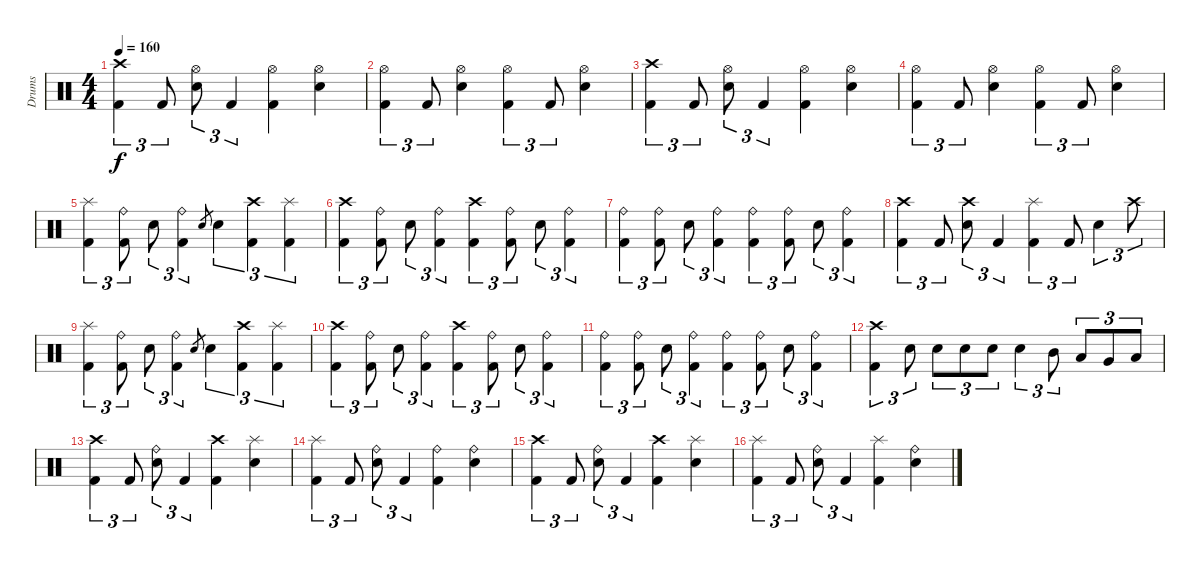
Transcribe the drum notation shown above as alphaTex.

\track ("Drums" "Drums") {instrument percussion}
\staff {score}
\articulation defaults
\ts (4 4)
\tempo 160
\clef neutral
\ks c
("Crash high (hit)" "Kick (hit) 2").4{tu (3 2) dy f} "Kick (hit) 2".8{tu (3 2)} ("Hi-Hat (open)" "Snare (hit) 2").8{tu (3 2)} "Kick (hit) 2".4{tu (3 2)} ("Hi-Hat (open)" "Kick (hit) 2").4 ("Hi-Hat (open)" "Snare (hit) 2").4 |
("Hi-Hat (open)" "Kick (hit) 2").4{tu (3 2)} "Kick (hit) 2".8{tu (3 2)} ("Hi-Hat (open)" "Snare (hit) 2").4 ("Hi-Hat (open)" "Kick (hit) 2").4{tu (3 2)} "Kick (hit) 2".8{tu (3 2)} ("Hi-Hat (open)" "Snare (hit) 2").4 |
("Crash high (hit)" "Kick (hit) 2").4{tu (3 2)} "Kick (hit) 2".8{tu (3 2)} ("Hi-Hat (open)" "Snare (hit) 2").8{tu (3 2)} "Kick (hit) 2".4{tu (3 2)} ("Hi-Hat (open)" "Kick (hit) 2").4 ("Hi-Hat (open)" "Snare (hit) 2").4 |
("Hi-Hat (open)" "Kick (hit) 2").4{tu (3 2)} "Kick (hit) 2".8{tu (3 2)} ("Hi-Hat (open)" "Snare (hit) 2").4 ("Hi-Hat (open)" "Kick (hit) 2").4{tu (3 2)} "Kick (hit) 2".8{tu (3 2)} ("Hi-Hat (open)" "Snare (hit) 2").4 |
("Splash (hit)" "Kick (hit) 2").4{tu (3 2)} ("Ride (bell)" "Kick (hit) 2").8{tu (3 2)} "Snare (hit) 2".8{tu (3 2)} ("Ride (bell)" "Kick (hit) 2").4{tu (3 2)} "Snare (hit) 2".8{gr} "Snare (hit) 2".4{tu (3 2)} ("Crash high (hit)" "Kick (hit) 2").4{tu (3 2)} ("Splash (hit)" "Kick (hit) 2").4{tu (3 2)} |
("Crash high (hit)" "Kick (hit) 2").4{tu (3 2)} ("Ride (bell)" "Kick (hit) 2").8{tu (3 2)} "Snare (hit) 2".8{tu (3 2)} ("Ride (bell)" "Kick (hit) 2").4{tu (3 2)} ("Crash high (hit)" "Kick (hit) 2").4{tu (3 2)} ("Ride (bell)" "Kick (hit) 2").8{tu (3 2)} "Snare (hit) 2".8{tu (3 2)} ("Ride (bell)" "Kick (hit) 2").4{tu (3 2)} |
("Ride (bell)" "Kick (hit) 2").4{tu (3 2)} ("Ride (bell)" "Kick (hit) 2").8{tu (3 2)} "Snare (hit) 2".8{tu (3 2)} ("Ride (bell)" "Kick (hit) 2").4{tu (3 2)} ("Ride (bell)" "Kick (hit) 2").4{tu (3 2)} ("Ride (bell)" "Kick (hit) 2").8{tu (3 2)} "Snare (hit) 2".8{tu (3 2)} ("Ride (bell)" "Kick (hit) 2").4{tu (3 2)} |
("Crash high (hit)" "Kick (hit) 2").4{tu (3 2)} "Kick (hit) 2".8{tu (3 2)} ("Crash high (hit)" "Snare (hit) 2").8{tu (3 2)} "Kick (hit) 2".4{tu (3 2)} ("Splash (hit)" "Kick (hit) 2").4{tu (3 2)} "Kick (hit) 2".8{tu (3 2)} "Snare (hit) 2".4{tu (3 2)} "Crash high (hit)".8{tu (3 2)} |
("Splash (hit)" "Kick (hit) 2").4{tu (3 2)} ("Ride (bell)" "Kick (hit) 2").8{tu (3 2)} "Snare (hit) 2".8{tu (3 2)} ("Ride (bell)" "Kick (hit) 2").4{tu (3 2)} "Snare (hit) 2".8{gr} "Snare (hit) 2".4{tu (3 2)} ("Crash high (hit)" "Kick (hit) 2").4{tu (3 2)} ("Splash (hit)" "Kick (hit) 2").4{tu (3 2)} |
("Crash high (hit)" "Kick (hit) 2").4{tu (3 2)} ("Ride (bell)" "Kick (hit) 2").8{tu (3 2)} "Snare (hit) 2".8{tu (3 2)} ("Ride (bell)" "Kick (hit) 2").4{tu (3 2)} ("Crash high (hit)" "Kick (hit) 2").4{tu (3 2)} ("Ride (bell)" "Kick (hit) 2").8{tu (3 2)} "Snare (hit) 2".8{tu (3 2)} ("Ride (bell)" "Kick (hit) 2").4{tu (3 2)} |
("Ride (bell)" "Kick (hit) 2").4{tu (3 2)} ("Ride (bell)" "Kick (hit) 2").8{tu (3 2)} "Snare (hit) 2".8{tu (3 2)} ("Ride (bell)" "Kick (hit) 2").4{tu (3 2)} ("Ride (bell)" "Kick (hit) 2").4{tu (3 2)} ("Ride (bell)" "Kick (hit) 2").8{tu (3 2)} "Snare (hit) 2".8{tu (3 2)} ("Ride (bell)" "Kick (hit) 2").4{tu (3 2)} |
("Crash high (hit)" "Kick (hit) 2").4{tu (3 2)} "Snare (hit) 2".8{tu (3 2)} "Snare (hit) 2".8{tu (3 2)} "Snare (hit) 2".8{tu (3 2)} "Snare (hit) 2".8{tu (3 2)} "Snare (hit) 2".4{tu (3 2)} "Mid Tom (hit)".8{tu (3 2)} "Low Tom (hit)".8{tu (3 2)} "Very Low Tom (hit)".8{tu (3 2)} "Low Floor Tom (hit)".8{tu (3 2)} |
("Crash high (hit)" "Kick (hit) 2").4{tu (3 2)} "Kick (hit) 2".8{tu (3 2)} ("Ride (bell)" "Snare (hit) 2").8{tu (3 2)} "Kick (hit) 2".4{tu (3 2)} ("Crash high (hit)" "Kick (hit) 2").4 ("Splash (hit)" "Snare (hit) 2").4 |
("Splash (hit)" "Kick (hit) 2").4{tu (3 2)} "Kick (hit) 2".8{tu (3 2)} ("Ride (bell)" "Snare (hit) 2").8{tu (3 2)} "Kick (hit) 2".4{tu (3 2)} ("Ride (bell)" "Kick (hit) 2").4 ("Ride (bell)" "Snare (hit) 2").4 |
("Crash high (hit)" "Kick (hit) 2").4{tu (3 2)} "Kick (hit) 2".8{tu (3 2)} ("Ride (bell)" "Snare (hit) 2").8{tu (3 2)} "Kick (hit) 2".4{tu (3 2)} ("Crash high (hit)" "Kick (hit) 2").4 ("Splash (hit)" "Snare (hit) 2").4 |
("Splash (hit)" "Kick (hit) 2").4{tu (3 2)} "Kick (hit) 2".8{tu (3 2)} ("Ride (bell)" "Snare (hit) 2").8{tu (3 2)} "Kick (hit) 2".4{tu (3 2)} ("Splash (hit)" "Kick (hit) 2").4 ("Ride (bell)" "Snare (hit) 2").4
